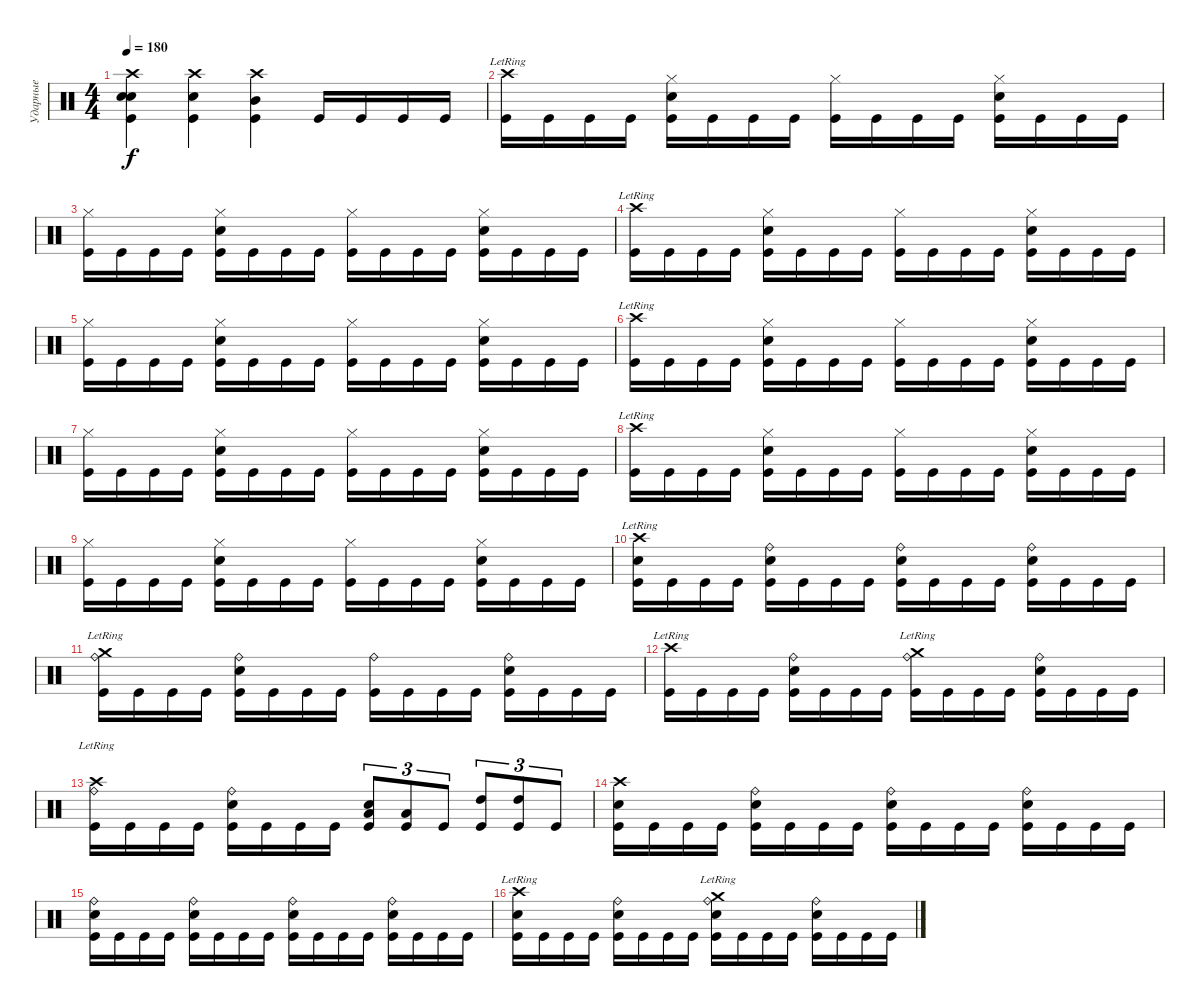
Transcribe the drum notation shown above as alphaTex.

\track ("Ударные" "Ударные") {instrument percussion}
\staff {score}
\articulation defaults
\ts (4 4)
\tempo 180
\clef neutral
\ks c
("Crash high (hit)" "Electric Snare (hit)" "Electric Snare (hit)" "Kick (hit)").4{dy f} ("Crash high (hit)" "Electric Snare (hit)" "Kick (hit)").4 ("Crash high (hit)" "Mid Tom (hit)" "Kick (hit)").4 "Kick (hit)".16 "Kick (hit)".16 "Kick (hit)".16 "Kick (hit)".16 |
("Crash high (hit)"{lr} "Kick (hit)").16 "Kick (hit)".16 "Kick (hit)".16 "Kick (hit)".16 ("Hi-Hat (closed)" "Electric Snare (hit)" "Kick (hit)").16 "Kick (hit)".16 "Kick (hit)".16 "Kick (hit)".16 ("Hi-Hat (closed)" "Kick (hit)").16 "Kick (hit)".16 "Kick (hit)".16 "Kick (hit)".16 ("Hi-Hat (closed)" "Electric Snare (hit)" "Kick (hit)").16 "Kick (hit)".16 "Kick (hit)".16 "Kick (hit)".16 |
("Hi-Hat (closed)" "Kick (hit)").16 "Kick (hit)".16 "Kick (hit)".16 "Kick (hit)".16 ("Hi-Hat (closed)" "Electric Snare (hit)" "Kick (hit)").16 "Kick (hit)".16 "Kick (hit)".16 "Kick (hit)".16 ("Hi-Hat (closed)" "Kick (hit)").16 "Kick (hit)".16 "Kick (hit)".16 "Kick (hit)".16 ("Hi-Hat (closed)" "Electric Snare (hit)" "Kick (hit)").16 "Kick (hit)".16 "Kick (hit)".16 "Kick (hit)".16 |
("Crash high (hit)"{lr} "Kick (hit)").16 "Kick (hit)".16 "Kick (hit)".16 "Kick (hit)".16 ("Hi-Hat (closed)" "Electric Snare (hit)" "Kick (hit)").16 "Kick (hit)".16 "Kick (hit)".16 "Kick (hit)".16 ("Hi-Hat (closed)" "Kick (hit)").16 "Kick (hit)".16 "Kick (hit)".16 "Kick (hit)".16 ("Hi-Hat (closed)" "Electric Snare (hit)" "Kick (hit)").16 "Kick (hit)".16 "Kick (hit)".16 "Kick (hit)".16 |
("Hi-Hat (closed)" "Kick (hit)").16 "Kick (hit)".16 "Kick (hit)".16 "Kick (hit)".16 ("Hi-Hat (closed)" "Electric Snare (hit)" "Kick (hit)").16 "Kick (hit)".16 "Kick (hit)".16 "Kick (hit)".16 ("Hi-Hat (closed)" "Kick (hit)").16 "Kick (hit)".16 "Kick (hit)".16 "Kick (hit)".16 ("Hi-Hat (closed)" "Electric Snare (hit)" "Kick (hit)").16 "Kick (hit)".16 "Kick (hit)".16 "Kick (hit)".16 |
("Crash high (hit)"{lr} "Kick (hit)").16 "Kick (hit)".16 "Kick (hit)".16 "Kick (hit)".16 ("Hi-Hat (closed)" "Electric Snare (hit)" "Kick (hit)").16 "Kick (hit)".16 "Kick (hit)".16 "Kick (hit)".16 ("Hi-Hat (closed)" "Kick (hit)").16 "Kick (hit)".16 "Kick (hit)".16 "Kick (hit)".16 ("Hi-Hat (closed)" "Electric Snare (hit)" "Kick (hit)").16 "Kick (hit)".16 "Kick (hit)".16 "Kick (hit)".16 |
("Hi-Hat (closed)" "Kick (hit)").16 "Kick (hit)".16 "Kick (hit)".16 "Kick (hit)".16 ("Hi-Hat (closed)" "Electric Snare (hit)" "Kick (hit)").16 "Kick (hit)".16 "Kick (hit)".16 "Kick (hit)".16 ("Hi-Hat (closed)" "Kick (hit)").16 "Kick (hit)".16 "Kick (hit)".16 "Kick (hit)".16 ("Hi-Hat (closed)" "Electric Snare (hit)" "Kick (hit)").16 "Kick (hit)".16 "Kick (hit)".16 "Kick (hit)".16 |
("Crash high (hit)"{lr} "Kick (hit)").16 "Kick (hit)".16 "Kick (hit)".16 "Kick (hit)".16 ("Hi-Hat (closed)" "Electric Snare (hit)" "Kick (hit)").16 "Kick (hit)".16 "Kick (hit)".16 "Kick (hit)".16 ("Hi-Hat (closed)" "Kick (hit)").16 "Kick (hit)".16 "Kick (hit)".16 "Kick (hit)".16 ("Hi-Hat (closed)" "Electric Snare (hit)" "Kick (hit)").16 "Kick (hit)".16 "Kick (hit)".16 "Kick (hit)".16 |
("Hi-Hat (closed)" "Kick (hit)").16 "Kick (hit)".16 "Kick (hit)".16 "Kick (hit)".16 ("Hi-Hat (closed)" "Electric Snare (hit)" "Kick (hit)").16 "Kick (hit)".16 "Kick (hit)".16 "Kick (hit)".16 ("Hi-Hat (closed)" "Kick (hit)").16 "Kick (hit)".16 "Kick (hit)".16 "Kick (hit)".16 ("Hi-Hat (closed)" "Electric Snare (hit)" "Kick (hit)").16 "Kick (hit)".16 "Kick (hit)".16 "Kick (hit)".16 |
("Crash high (hit)"{lr} "Electric Snare (hit)" "Kick (hit)").16 "Kick (hit)".16 "Kick (hit)".16 "Kick (hit)".16 ("Ride (bell)" "Electric Snare (hit)" "Kick (hit)").16 "Kick (hit)".16 "Kick (hit)".16 "Kick (hit)".16 ("Ride (bell)" "Electric Snare (hit)" "Kick (hit)").16 "Kick (hit)".16 "Kick (hit)".16 "Kick (hit)".16 ("Ride (bell)" "Electric Snare (hit)" "Kick (hit)").16 "Kick (hit)".16 "Kick (hit)".16 "Kick (hit)".16 |
("Crash medium (hit)"{lr} "Ride (bell)" "Kick (hit)").16 "Kick (hit)".16 "Kick (hit)".16 "Kick (hit)".16 ("Ride (bell)" "Electric Snare (hit)" "Kick (hit)").16 "Kick (hit)".16 "Kick (hit)".16 "Kick (hit)".16 ("Ride (bell)" "Kick (hit)").16 "Kick (hit)".16 "Kick (hit)".16 "Kick (hit)".16 ("Ride (bell)" "Electric Snare (hit)" "Kick (hit)").16 "Kick (hit)".16 "Kick (hit)".16 "Kick (hit)".16 |
("Crash high (hit)"{lr} "Kick (hit)").16 "Kick (hit)".16 "Kick (hit)".16 "Kick (hit)".16 ("Ride (bell)" "Electric Snare (hit)" "Kick (hit)").16 "Kick (hit)".16 "Kick (hit)".16 "Kick (hit)".16 ("Crash medium (hit)"{lr} "Ride (bell)" "Kick (hit)").16 "Kick (hit)".16 "Kick (hit)".16 "Kick (hit)".16 ("Ride (bell)" "Electric Snare (hit)" "Kick (hit)").16 "Kick (hit)".16 "Kick (hit)".16 "Kick (hit)".16 |
("Crash high (hit)"{lr} "Ride (bell)" "Kick (hit)").16 "Kick (hit)".16 "Kick (hit)".16 "Kick (hit)".16 ("Ride (bell)" "Electric Snare (hit)" "Kick (hit)").16 "Kick (hit)".16 "Kick (hit)".16 "Kick (hit)".16 ("Low Tom (hit)" "Electric Snare (hit)" "Kick (hit)").8{tu (3 2)} ("Low Tom (hit)" "Kick (hit)").8{tu (3 2)} "Kick (hit)".8{tu (3 2)} ("High Tom (hit)" "Kick (hit)").8{tu (3 2)} ("High Tom (hit)" "Kick (hit)").8{tu (3 2)} "Kick (hit)".8{tu (3 2)} |
("Crash high (hit)" "Electric Snare (hit)" "Kick (hit)").16 "Kick (hit)".16 "Kick (hit)".16 "Kick (hit)".16 ("Ride (bell)" "Electric Snare (hit)" "Kick (hit)").16 "Kick (hit)".16 "Kick (hit)".16 "Kick (hit)".16 ("Ride (bell)" "Electric Snare (hit)" "Kick (hit)").16 "Kick (hit)".16 "Kick (hit)".16 "Kick (hit)".16 ("Ride (bell)" "Electric Snare (hit)" "Kick (hit)").16 "Kick (hit)".16 "Kick (hit)".16 "Kick (hit)".16 |
("Ride (bell)" "Electric Snare (hit)" "Kick (hit)").16 "Kick (hit)".16 "Kick (hit)".16 "Kick (hit)".16 ("Ride (bell)" "Electric Snare (hit)" "Kick (hit)").16 "Kick (hit)".16 "Kick (hit)".16 "Kick (hit)".16 ("Ride (bell)" "Electric Snare (hit)" "Kick (hit)").16 "Kick (hit)".16 "Kick (hit)".16 "Kick (hit)".16 ("Ride (bell)" "Electric Snare (hit)" "Kick (hit)").16 "Kick (hit)".16 "Kick (hit)".16 "Kick (hit)".16 |
("Crash high (hit)"{lr} "Electric Snare (hit)" "Kick (hit)").16 "Kick (hit)".16 "Kick (hit)".16 "Kick (hit)".16 ("Ride (bell)" "Electric Snare (hit)" "Kick (hit)").16 "Kick (hit)".16 "Kick (hit)".16 "Kick (hit)".16 ("Crash medium (hit)"{lr} "Ride (bell)" "Electric Snare (hit)" "Kick (hit)").16 "Kick (hit)".16 "Kick (hit)".16 "Kick (hit)".16 ("Ride (bell)" "Electric Snare (hit)" "Kick (hit)").16 "Kick (hit)".16 "Kick (hit)".16 "Kick (hit)".16
